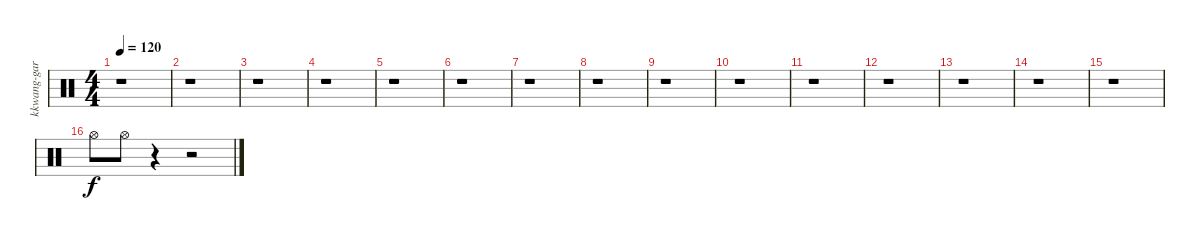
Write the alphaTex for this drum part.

\track ("kkwang-gari" "kkwang-gar") {instrument percussion}
\staff {score}
\articulation defaults
\ts (4 4)
\tempo 120
\clef neutral
\ks c
r.1{dy f} |
r.1 |
r.1 |
r.1 |
r.1 |
r.1 |
r.1 |
r.1 |
r.1 |
r.1 |
r.1 |
r.1 |
r.1 |
r.1 |
r.1 |
"Hi-Hat (open)".8 "Hi-Hat (open)".8 r.4 r.2
